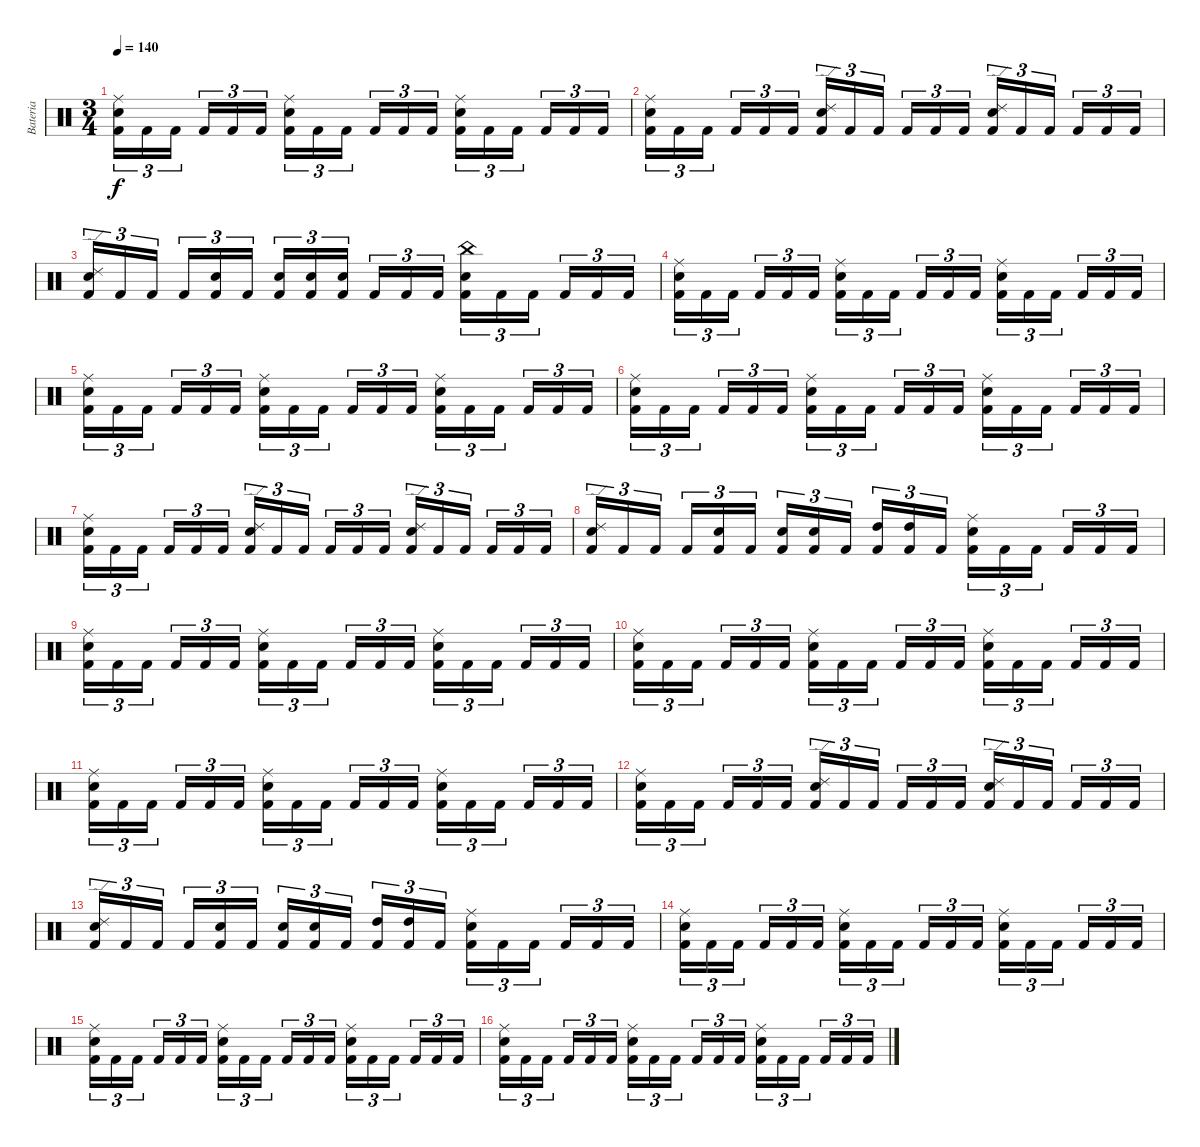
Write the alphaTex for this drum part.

\track ("Bateria" "Bateria") {instrument percussion}
\staff {score}
\articulation defaults
\ts (3 4)
\tempo 140
\clef neutral
\ks c
("Kick (hit) 2" "Electric Snare (hit)" "Ride (middle)").16{tu (3 2) dy f} "Kick (hit) 2".16{tu (3 2)} "Kick (hit) 2".16{tu (3 2)} "Kick (hit) 2".16{tu (3 2)} "Kick (hit) 2".16{tu (3 2)} "Kick (hit) 2".16{tu (3 2)} ("Kick (hit) 2" "Electric Snare (hit)" "Ride (middle)").16{tu (3 2)} "Kick (hit) 2".16{tu (3 2)} "Kick (hit) 2".16{tu (3 2)} "Kick (hit) 2".16{tu (3 2)} "Kick (hit) 2".16{tu (3 2)} "Kick (hit) 2".16{tu (3 2)} ("Kick (hit) 2" "Electric Snare (hit)" "Ride (middle)").16{tu (3 2)} "Kick (hit) 2".16{tu (3 2)} "Kick (hit) 2".16{tu (3 2)} "Kick (hit) 2".16{tu (3 2)} "Kick (hit) 2".16{tu (3 2)} "Kick (hit) 2".16{tu (3 2)} |
("Kick (hit) 2" "Electric Snare (hit)" "Ride (middle)").16{tu (3 2)} "Kick (hit) 2".16{tu (3 2)} "Kick (hit) 2".16{tu (3 2)} "Kick (hit) 2".16{tu (3 2)} "Kick (hit) 2".16{tu (3 2)} "Kick (hit) 2".16{tu (3 2)} ("Kick (hit) 2" "Electric Snare (hit)" "Ride (edge) 2").16{tu (3 2)} "Kick (hit) 2".16{tu (3 2)} "Kick (hit) 2".16{tu (3 2)} "Kick (hit) 2".16{tu (3 2)} "Kick (hit) 2".16{tu (3 2)} "Kick (hit) 2".16{tu (3 2)} ("Kick (hit) 2" "Electric Snare (hit)" "Ride (edge) 2").16{tu (3 2)} "Kick (hit) 2".16{tu (3 2)} "Kick (hit) 2".16{tu (3 2)} "Kick (hit) 2".16{tu (3 2)} "Kick (hit) 2".16{tu (3 2)} "Kick (hit) 2".16{tu (3 2)} |
("Kick (hit) 2" "Electric Snare (hit)" "Ride (edge) 2").16{tu (3 2)} "Kick (hit) 2".16{tu (3 2)} "Kick (hit) 2".16{tu (3 2)} "Kick (hit) 2".16{tu (3 2)} ("Kick (hit) 2" "Electric Snare (hit)").16{tu (3 2)} "Kick (hit) 2".16{tu (3 2)} ("Kick (hit) 2" "Electric Snare (hit)").16{tu (3 2)} ("Kick (hit) 2" "Electric Snare (hit)").16{tu (3 2)} ("Kick (hit) 2" "Electric Snare (hit)").16{tu (3 2)} "Kick (hit) 2".16{tu (3 2)} "Kick (hit) 2".16{tu (3 2)} "Kick (hit) 2".16{tu (3 2)} ("Kick (hit) 2" "Electric Snare (hit)" "China (hit)").16{tu (3 2)} "Kick (hit) 2".16{tu (3 2)} "Kick (hit) 2".16{tu (3 2)} "Kick (hit) 2".16{tu (3 2)} "Kick (hit) 2".16{tu (3 2)} "Kick (hit) 2".16{tu (3 2)} |
("Kick (hit) 2" "Electric Snare (hit)" "Ride (middle)").16{tu (3 2)} "Kick (hit) 2".16{tu (3 2)} "Kick (hit) 2".16{tu (3 2)} "Kick (hit) 2".16{tu (3 2)} "Kick (hit) 2".16{tu (3 2)} "Kick (hit) 2".16{tu (3 2)} ("Kick (hit) 2" "Electric Snare (hit)" "Ride (middle)").16{tu (3 2)} "Kick (hit) 2".16{tu (3 2)} "Kick (hit) 2".16{tu (3 2)} "Kick (hit) 2".16{tu (3 2)} "Kick (hit) 2".16{tu (3 2)} "Kick (hit) 2".16{tu (3 2)} ("Kick (hit) 2" "Electric Snare (hit)" "Ride (middle)").16{tu (3 2)} "Kick (hit) 2".16{tu (3 2)} "Kick (hit) 2".16{tu (3 2)} "Kick (hit) 2".16{tu (3 2)} "Kick (hit) 2".16{tu (3 2)} "Kick (hit) 2".16{tu (3 2)} |
("Kick (hit) 2" "Electric Snare (hit)" "Ride (middle)").16{tu (3 2)} "Kick (hit) 2".16{tu (3 2)} "Kick (hit) 2".16{tu (3 2)} "Kick (hit) 2".16{tu (3 2)} "Kick (hit) 2".16{tu (3 2)} "Kick (hit) 2".16{tu (3 2)} ("Kick (hit) 2" "Electric Snare (hit)" "Ride (middle)").16{tu (3 2)} "Kick (hit) 2".16{tu (3 2)} "Kick (hit) 2".16{tu (3 2)} "Kick (hit) 2".16{tu (3 2)} "Kick (hit) 2".16{tu (3 2)} "Kick (hit) 2".16{tu (3 2)} ("Kick (hit) 2" "Electric Snare (hit)" "Ride (middle)").16{tu (3 2)} "Kick (hit) 2".16{tu (3 2)} "Kick (hit) 2".16{tu (3 2)} "Kick (hit) 2".16{tu (3 2)} "Kick (hit) 2".16{tu (3 2)} "Kick (hit) 2".16{tu (3 2)} |
("Kick (hit) 2" "Electric Snare (hit)" "Ride (middle)").16{tu (3 2)} "Kick (hit) 2".16{tu (3 2)} "Kick (hit) 2".16{tu (3 2)} "Kick (hit) 2".16{tu (3 2)} "Kick (hit) 2".16{tu (3 2)} "Kick (hit) 2".16{tu (3 2)} ("Kick (hit) 2" "Electric Snare (hit)" "Ride (middle)").16{tu (3 2)} "Kick (hit) 2".16{tu (3 2)} "Kick (hit) 2".16{tu (3 2)} "Kick (hit) 2".16{tu (3 2)} "Kick (hit) 2".16{tu (3 2)} "Kick (hit) 2".16{tu (3 2)} ("Kick (hit) 2" "Electric Snare (hit)" "Ride (middle)").16{tu (3 2)} "Kick (hit) 2".16{tu (3 2)} "Kick (hit) 2".16{tu (3 2)} "Kick (hit) 2".16{tu (3 2)} "Kick (hit) 2".16{tu (3 2)} "Kick (hit) 2".16{tu (3 2)} |
("Kick (hit) 2" "Electric Snare (hit)" "Ride (middle)").16{tu (3 2)} "Kick (hit) 2".16{tu (3 2)} "Kick (hit) 2".16{tu (3 2)} "Kick (hit) 2".16{tu (3 2)} "Kick (hit) 2".16{tu (3 2)} "Kick (hit) 2".16{tu (3 2)} ("Kick (hit) 2" "Electric Snare (hit)" "Ride (edge) 2").16{tu (3 2)} "Kick (hit) 2".16{tu (3 2)} "Kick (hit) 2".16{tu (3 2)} "Kick (hit) 2".16{tu (3 2)} "Kick (hit) 2".16{tu (3 2)} "Kick (hit) 2".16{tu (3 2)} ("Kick (hit) 2" "Electric Snare (hit)" "Ride (edge) 2").16{tu (3 2)} "Kick (hit) 2".16{tu (3 2)} "Kick (hit) 2".16{tu (3 2)} "Kick (hit) 2".16{tu (3 2)} "Kick (hit) 2".16{tu (3 2)} "Kick (hit) 2".16{tu (3 2)} |
("Kick (hit) 2" "Electric Snare (hit)" "Ride (edge) 2").16{tu (3 2)} "Kick (hit) 2".16{tu (3 2)} "Kick (hit) 2".16{tu (3 2)} "Kick (hit) 2".16{tu (3 2)} ("Kick (hit) 2" "Electric Snare (hit)").16{tu (3 2)} "Kick (hit) 2".16{tu (3 2)} ("Kick (hit) 2" "Electric Snare (hit)").16{tu (3 2)} ("Kick (hit) 2" "Electric Snare (hit)").16{tu (3 2)} "Kick (hit) 2".16{tu (3 2)} ("Kick (hit) 2" "High Tom (hit)").16{tu (3 2)} ("Kick (hit) 2" "High Tom (hit)").16{tu (3 2)} "Kick (hit) 2".16{tu (3 2)} ("Kick (hit) 2" "Electric Snare (hit)" "Ride (middle)").16{tu (3 2)} "Kick (hit) 2".16{tu (3 2)} "Kick (hit) 2".16{tu (3 2)} "Kick (hit) 2".16{tu (3 2)} "Kick (hit) 2".16{tu (3 2)} "Kick (hit) 2".16{tu (3 2)} |
("Kick (hit) 2" "Electric Snare (hit)" "Ride (middle)").16{tu (3 2)} "Kick (hit) 2".16{tu (3 2)} "Kick (hit) 2".16{tu (3 2)} "Kick (hit) 2".16{tu (3 2)} "Kick (hit) 2".16{tu (3 2)} "Kick (hit) 2".16{tu (3 2)} ("Kick (hit) 2" "Electric Snare (hit)" "Ride (middle)").16{tu (3 2)} "Kick (hit) 2".16{tu (3 2)} "Kick (hit) 2".16{tu (3 2)} "Kick (hit) 2".16{tu (3 2)} "Kick (hit) 2".16{tu (3 2)} "Kick (hit) 2".16{tu (3 2)} ("Kick (hit) 2" "Electric Snare (hit)" "Ride (middle)").16{tu (3 2)} "Kick (hit) 2".16{tu (3 2)} "Kick (hit) 2".16{tu (3 2)} "Kick (hit) 2".16{tu (3 2)} "Kick (hit) 2".16{tu (3 2)} "Kick (hit) 2".16{tu (3 2)} |
("Kick (hit) 2" "Electric Snare (hit)" "Ride (middle)").16{tu (3 2)} "Kick (hit) 2".16{tu (3 2)} "Kick (hit) 2".16{tu (3 2)} "Kick (hit) 2".16{tu (3 2)} "Kick (hit) 2".16{tu (3 2)} "Kick (hit) 2".16{tu (3 2)} ("Kick (hit) 2" "Electric Snare (hit)" "Ride (middle)").16{tu (3 2)} "Kick (hit) 2".16{tu (3 2)} "Kick (hit) 2".16{tu (3 2)} "Kick (hit) 2".16{tu (3 2)} "Kick (hit) 2".16{tu (3 2)} "Kick (hit) 2".16{tu (3 2)} ("Kick (hit) 2" "Electric Snare (hit)" "Ride (middle)").16{tu (3 2)} "Kick (hit) 2".16{tu (3 2)} "Kick (hit) 2".16{tu (3 2)} "Kick (hit) 2".16{tu (3 2)} "Kick (hit) 2".16{tu (3 2)} "Kick (hit) 2".16{tu (3 2)} |
("Kick (hit) 2" "Electric Snare (hit)" "Ride (middle)").16{tu (3 2)} "Kick (hit) 2".16{tu (3 2)} "Kick (hit) 2".16{tu (3 2)} "Kick (hit) 2".16{tu (3 2)} "Kick (hit) 2".16{tu (3 2)} "Kick (hit) 2".16{tu (3 2)} ("Kick (hit) 2" "Electric Snare (hit)" "Ride (middle)").16{tu (3 2)} "Kick (hit) 2".16{tu (3 2)} "Kick (hit) 2".16{tu (3 2)} "Kick (hit) 2".16{tu (3 2)} "Kick (hit) 2".16{tu (3 2)} "Kick (hit) 2".16{tu (3 2)} ("Kick (hit) 2" "Electric Snare (hit)" "Ride (middle)").16{tu (3 2)} "Kick (hit) 2".16{tu (3 2)} "Kick (hit) 2".16{tu (3 2)} "Kick (hit) 2".16{tu (3 2)} "Kick (hit) 2".16{tu (3 2)} "Kick (hit) 2".16{tu (3 2)} |
("Kick (hit) 2" "Electric Snare (hit)" "Ride (middle)").16{tu (3 2)} "Kick (hit) 2".16{tu (3 2)} "Kick (hit) 2".16{tu (3 2)} "Kick (hit) 2".16{tu (3 2)} "Kick (hit) 2".16{tu (3 2)} "Kick (hit) 2".16{tu (3 2)} ("Kick (hit) 2" "Electric Snare (hit)" "Ride (edge) 2").16{tu (3 2)} "Kick (hit) 2".16{tu (3 2)} "Kick (hit) 2".16{tu (3 2)} "Kick (hit) 2".16{tu (3 2)} "Kick (hit) 2".16{tu (3 2)} "Kick (hit) 2".16{tu (3 2)} ("Kick (hit) 2" "Electric Snare (hit)" "Ride (edge) 2").16{tu (3 2)} "Kick (hit) 2".16{tu (3 2)} "Kick (hit) 2".16{tu (3 2)} "Kick (hit) 2".16{tu (3 2)} "Kick (hit) 2".16{tu (3 2)} "Kick (hit) 2".16{tu (3 2)} |
("Kick (hit) 2" "Electric Snare (hit)" "Ride (edge) 2").16{tu (3 2)} "Kick (hit) 2".16{tu (3 2)} "Kick (hit) 2".16{tu (3 2)} "Kick (hit) 2".16{tu (3 2)} ("Kick (hit) 2" "Electric Snare (hit)").16{tu (3 2)} "Kick (hit) 2".16{tu (3 2)} ("Kick (hit) 2" "Electric Snare (hit)").16{tu (3 2)} ("Kick (hit) 2" "Electric Snare (hit)").16{tu (3 2)} "Kick (hit) 2".16{tu (3 2)} ("Kick (hit) 2" "High Tom (hit)").16{tu (3 2)} ("Kick (hit) 2" "High Tom (hit)").16{tu (3 2)} "Kick (hit) 2".16{tu (3 2)} ("Kick (hit) 2" "Electric Snare (hit)" "Ride (middle)").16{tu (3 2)} "Kick (hit) 2".16{tu (3 2)} "Kick (hit) 2".16{tu (3 2)} "Kick (hit) 2".16{tu (3 2)} "Kick (hit) 2".16{tu (3 2)} "Kick (hit) 2".16{tu (3 2)} |
("Kick (hit) 2" "Electric Snare (hit)" "Ride (middle)").16{tu (3 2)} "Kick (hit) 2".16{tu (3 2)} "Kick (hit) 2".16{tu (3 2)} "Kick (hit) 2".16{tu (3 2)} "Kick (hit) 2".16{tu (3 2)} "Kick (hit) 2".16{tu (3 2)} ("Kick (hit) 2" "Electric Snare (hit)" "Ride (middle)").16{tu (3 2)} "Kick (hit) 2".16{tu (3 2)} "Kick (hit) 2".16{tu (3 2)} "Kick (hit) 2".16{tu (3 2)} "Kick (hit) 2".16{tu (3 2)} "Kick (hit) 2".16{tu (3 2)} ("Kick (hit) 2" "Electric Snare (hit)" "Ride (middle)").16{tu (3 2)} "Kick (hit) 2".16{tu (3 2)} "Kick (hit) 2".16{tu (3 2)} "Kick (hit) 2".16{tu (3 2)} "Kick (hit) 2".16{tu (3 2)} "Kick (hit) 2".16{tu (3 2)} |
("Kick (hit) 2" "Electric Snare (hit)" "Ride (middle)").16{tu (3 2)} "Kick (hit) 2".16{tu (3 2)} "Kick (hit) 2".16{tu (3 2)} "Kick (hit) 2".16{tu (3 2)} "Kick (hit) 2".16{tu (3 2)} "Kick (hit) 2".16{tu (3 2)} ("Kick (hit) 2" "Electric Snare (hit)" "Ride (middle)").16{tu (3 2)} "Kick (hit) 2".16{tu (3 2)} "Kick (hit) 2".16{tu (3 2)} "Kick (hit) 2".16{tu (3 2)} "Kick (hit) 2".16{tu (3 2)} "Kick (hit) 2".16{tu (3 2)} ("Kick (hit) 2" "Electric Snare (hit)" "Ride (middle)").16{tu (3 2)} "Kick (hit) 2".16{tu (3 2)} "Kick (hit) 2".16{tu (3 2)} "Kick (hit) 2".16{tu (3 2)} "Kick (hit) 2".16{tu (3 2)} "Kick (hit) 2".16{tu (3 2)} |
("Kick (hit) 2" "Electric Snare (hit)" "Ride (middle)").16{tu (3 2)} "Kick (hit) 2".16{tu (3 2)} "Kick (hit) 2".16{tu (3 2)} "Kick (hit) 2".16{tu (3 2)} "Kick (hit) 2".16{tu (3 2)} "Kick (hit) 2".16{tu (3 2)} ("Kick (hit) 2" "Electric Snare (hit)" "Ride (middle)").16{tu (3 2)} "Kick (hit) 2".16{tu (3 2)} "Kick (hit) 2".16{tu (3 2)} "Kick (hit) 2".16{tu (3 2)} "Kick (hit) 2".16{tu (3 2)} "Kick (hit) 2".16{tu (3 2)} ("Kick (hit) 2" "Electric Snare (hit)" "Ride (middle)").16{tu (3 2)} "Kick (hit) 2".16{tu (3 2)} "Kick (hit) 2".16{tu (3 2)} "Kick (hit) 2".16{tu (3 2)} "Kick (hit) 2".16{tu (3 2)} "Kick (hit) 2".16{tu (3 2)}
